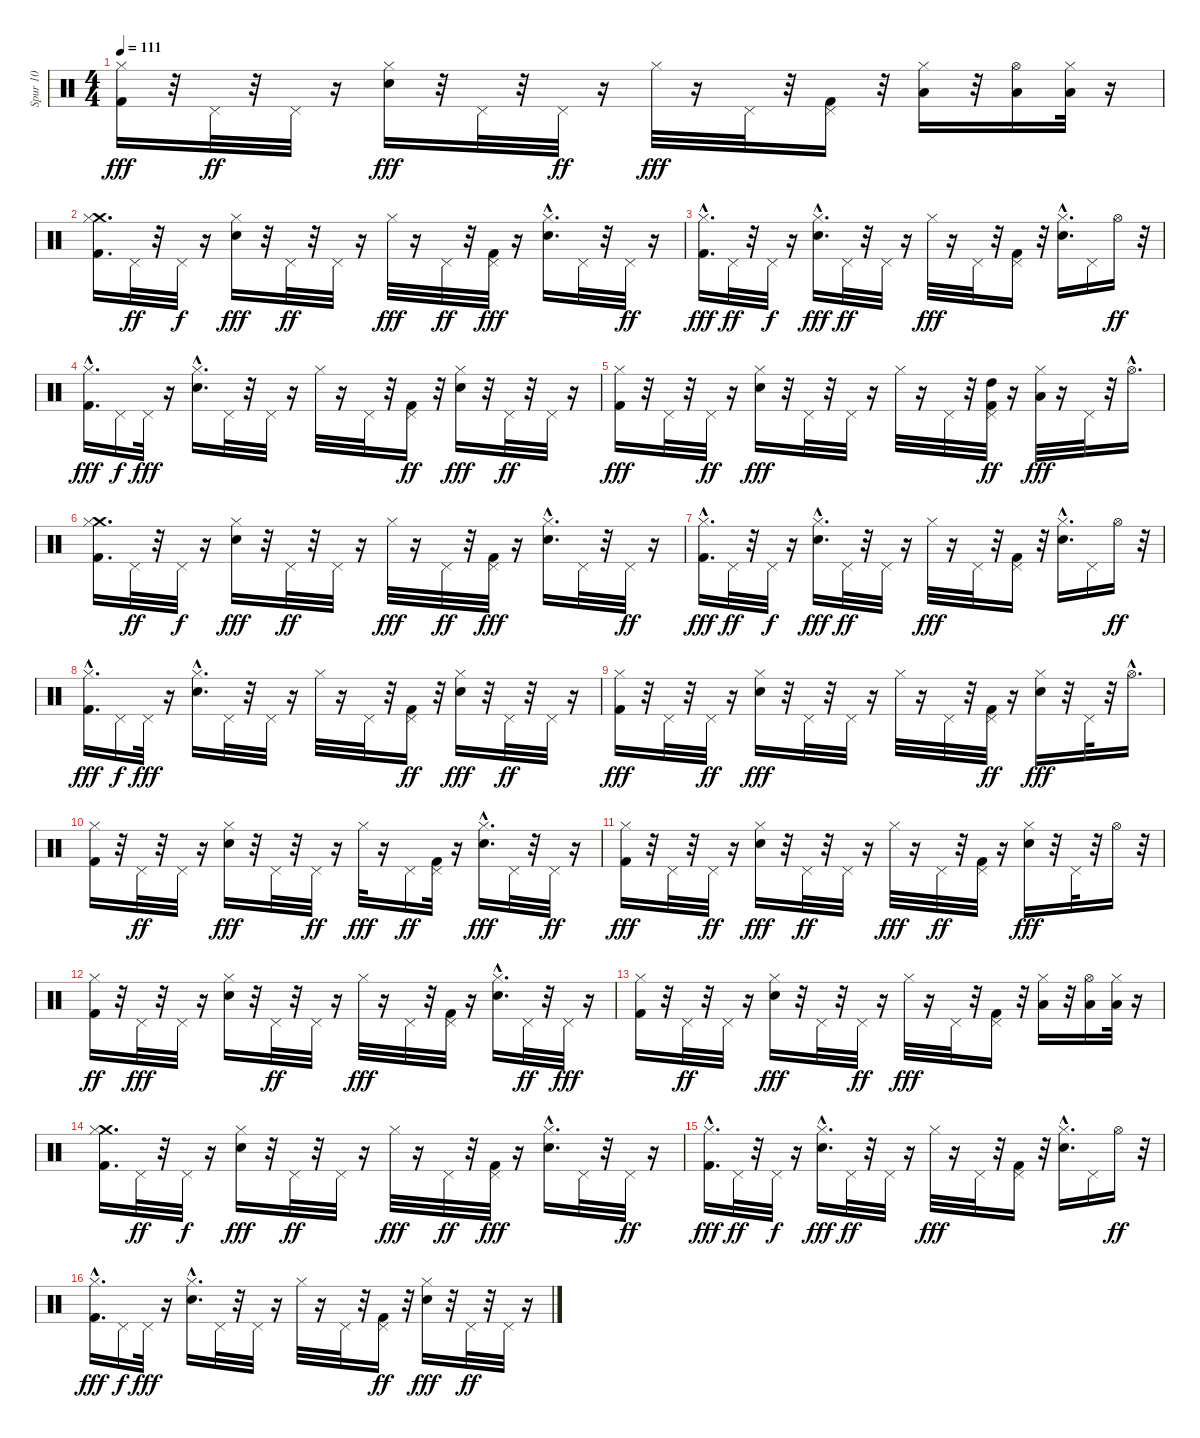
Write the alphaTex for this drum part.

\track ("Spur 10" "Spur 10") {instrument percussion}
\staff {score}
\articulation defaults
\ts (4 4)
\tempo 111
\clef neutral
\ks c
("Kick (hit) 2" "Hi-Hat (closed)").16{dy fff} r.32 "Pedal Hi-Hat (hit)".32{dy ff} r.32 "Pedal Hi-Hat (hit)".32 r.16 ("Snare (hit) 2" "Hi-Hat (closed)").16{dy fff} r.32 "Pedal Hi-Hat (hit)".32 r.32 "Pedal Hi-Hat (hit)".32{dy ff} r.16 "Hi-Hat (closed)".32{dy fff} r.16 "Pedal Hi-Hat (hit)".32 r.32 ("Kick (hit) 2" "Pedal Hi-Hat (hit)").16 r.32 ("Low Tom (hit)" "Hi-Hat (closed)").16 r.32 ("Low Tom (hit)" "Hi-Hat (open)").16 ("Low Floor Tom (hit)" "Hi-Hat (closed)").32 r.16 |
("Kick (hit) 2" "Crash medium (hit)" "Hi-Hat (closed)").16{d} "Pedal Hi-Hat (hit)".32{dy ff} r.32 "Pedal Hi-Hat (hit)".32{dy f} r.16 ("Snare (hit) 2" "Hi-Hat (closed)").16{dy fff} r.32 "Pedal Hi-Hat (hit)".32{dy ff} r.32 "Pedal Hi-Hat (hit)".32 r.16 "Hi-Hat (closed)".32{dy fff} r.16 "Pedal Hi-Hat (hit)".32{dy ff} r.32 ("Kick (hit) 2" "Pedal Hi-Hat (hit)").32{dy fff} r.16 ("Snare (hit) 2"{hac} "Hi-Hat (closed)").16{d} "Pedal Hi-Hat (hit)".32 r.32 "Pedal Hi-Hat (hit)".32{dy ff} r.16 |
("Kick (hit) 2"{hac} "Hi-Hat (closed)").16{d dy fff} "Pedal Hi-Hat (hit)".32{dy ff} r.32 "Pedal Hi-Hat (hit)".32{dy f} r.16 ("Snare (hit) 2"{hac} "Hi-Hat (closed)").16{d dy fff} "Pedal Hi-Hat (hit)".32{dy ff} r.32 "Pedal Hi-Hat (hit)".32 r.16 "Hi-Hat (closed)".32{dy fff} r.16 "Pedal Hi-Hat (hit)".32 r.32 ("Kick (hit) 2" "Pedal Hi-Hat (hit)").16 r.32 ("Snare (hit) 2"{hac} "Hi-Hat (closed)").16{d} "Pedal Hi-Hat (hit)".16 "Hi-Hat (open)".16{dy ff} r.32 |
("Kick (hit) 2"{hac} "Hi-Hat (closed)").16{d dy fff} "Pedal Hi-Hat (hit)".16{dy f} "Pedal Hi-Hat (hit)".32{dy fff} r.16 ("Snare (hit) 2"{hac} "Hi-Hat (closed)").16{d} "Pedal Hi-Hat (hit)".32 r.32 "Pedal Hi-Hat (hit)".32 r.16 "Hi-Hat (closed)".32 r.16 "Pedal Hi-Hat (hit)".32 r.32 ("Kick (hit) 2" "Pedal Hi-Hat (hit)").16{dy ff} r.32 ("Snare (hit) 2" "Hi-Hat (closed)").16{dy fff} r.32 "Pedal Hi-Hat (hit)".32{dy ff} r.32 "Pedal Hi-Hat (hit)".32 r.16 |
("Kick (hit) 2" "Hi-Hat (closed)").16{dy fff} r.32 "Pedal Hi-Hat (hit)".32 r.32 "Pedal Hi-Hat (hit)".32{dy ff} r.16 ("Snare (hit) 2" "Hi-Hat (closed)").16{dy fff} r.32 "Pedal Hi-Hat (hit)".32 r.32 "Pedal Hi-Hat (hit)".32 r.16 "Hi-Hat (closed)".32 r.16 "Pedal Hi-Hat (hit)".32 r.32 ("Kick (hit) 2" "Pedal Hi-Hat (hit)" "High Tom (hit)").32{dy ff} r.16 ("Low Tom (hit)" "Hi-Hat (closed)").32{dy fff} r.16 "Pedal Hi-Hat (hit)".32 r.32 "Hi-Hat (open)"{hac}.16{d} |
("Kick (hit) 2" "Crash medium (hit)" "Hi-Hat (closed)").16{d} "Pedal Hi-Hat (hit)".32{dy ff} r.32 "Pedal Hi-Hat (hit)".32{dy f} r.16 ("Snare (hit) 2" "Hi-Hat (closed)").16{dy fff} r.32 "Pedal Hi-Hat (hit)".32{dy ff} r.32 "Pedal Hi-Hat (hit)".32 r.16 "Hi-Hat (closed)".32{dy fff} r.16 "Pedal Hi-Hat (hit)".32{dy ff} r.32 ("Kick (hit) 2" "Pedal Hi-Hat (hit)").32{dy fff} r.16 ("Snare (hit) 2"{hac} "Hi-Hat (closed)").16{d} "Pedal Hi-Hat (hit)".32 r.32 "Pedal Hi-Hat (hit)".32{dy ff} r.16 |
("Kick (hit) 2"{hac} "Hi-Hat (closed)").16{d dy fff} "Pedal Hi-Hat (hit)".32{dy ff} r.32 "Pedal Hi-Hat (hit)".32{dy f} r.16 ("Snare (hit) 2"{hac} "Hi-Hat (closed)").16{d dy fff} "Pedal Hi-Hat (hit)".32{dy ff} r.32 "Pedal Hi-Hat (hit)".32 r.16 "Hi-Hat (closed)".32{dy fff} r.16 "Pedal Hi-Hat (hit)".32 r.32 ("Kick (hit) 2" "Pedal Hi-Hat (hit)").16 r.32 ("Snare (hit) 2"{hac} "Hi-Hat (closed)").16{d} "Pedal Hi-Hat (hit)".16 "Hi-Hat (open)".16{dy ff} r.32 |
("Kick (hit) 2"{hac} "Hi-Hat (closed)").16{d dy fff} "Pedal Hi-Hat (hit)".16{dy f} "Pedal Hi-Hat (hit)".32{dy fff} r.16 ("Snare (hit) 2"{hac} "Hi-Hat (closed)").16{d} "Pedal Hi-Hat (hit)".32 r.32 "Pedal Hi-Hat (hit)".32 r.16 "Hi-Hat (closed)".32 r.16 "Pedal Hi-Hat (hit)".32 r.32 ("Kick (hit) 2" "Pedal Hi-Hat (hit)").16{dy ff} r.32 ("Snare (hit) 2" "Hi-Hat (closed)").16{dy fff} r.32 "Pedal Hi-Hat (hit)".32{dy ff} r.32 "Pedal Hi-Hat (hit)".32 r.16 |
("Kick (hit) 2" "Hi-Hat (closed)").16{dy fff} r.32 "Pedal Hi-Hat (hit)".32 r.32 "Pedal Hi-Hat (hit)".32{dy ff} r.16 ("Snare (hit) 2" "Hi-Hat (closed)").16{dy fff} r.32 "Pedal Hi-Hat (hit)".32 r.32 "Pedal Hi-Hat (hit)".32 r.16 "Hi-Hat (closed)".32 r.16 "Pedal Hi-Hat (hit)".32 r.32 ("Kick (hit) 2" "Pedal Hi-Hat (hit)").32{dy ff} r.16 ("Snare (hit) 2" "Hi-Hat (closed)").16{dy fff} r.32 "Pedal Hi-Hat (hit)".32 r.32 "Hi-Hat (open)"{hac}.16{d} |
("Kick (hit) 2" "Hi-Hat (closed)").16 r.32 "Pedal Hi-Hat (hit)".32{dy ff} r.32 "Pedal Hi-Hat (hit)".32 r.16 ("Snare (hit) 2" "Hi-Hat (closed)").16{dy fff} r.32 "Pedal Hi-Hat (hit)".32 r.32 "Pedal Hi-Hat (hit)".32{dy ff} r.16 "Hi-Hat (closed)".32{dy fff} r.16 "Pedal Hi-Hat (hit)".16{dy ff} ("Kick (hit) 2" "Pedal Hi-Hat (hit)").32 r.16 ("Snare (hit) 2"{hac} "Hi-Hat (closed)").16{d dy fff} "Pedal Hi-Hat (hit)".32 r.32 "Pedal Hi-Hat (hit)".32{dy ff} r.16 |
("Kick (hit) 2" "Hi-Hat (closed)").16{dy fff} r.32 "Pedal Hi-Hat (hit)".32 r.32 "Pedal Hi-Hat (hit)".32{dy ff} r.16 ("Snare (hit) 2" "Hi-Hat (closed)").16{dy fff} r.32 "Pedal Hi-Hat (hit)".32{dy ff} r.32 "Pedal Hi-Hat (hit)".32 r.16 "Hi-Hat (closed)".32{dy fff} r.16 "Pedal Hi-Hat (hit)".32{dy ff} r.32 ("Kick (hit) 2" "Pedal Hi-Hat (hit)").32 r.16 ("Snare (hit) 2" "Hi-Hat (closed)").16{dy fff} r.32 "Pedal Hi-Hat (hit)".32 r.32 "Hi-Hat (open)".16 r.32 |
("Kick (hit) 2" "Hi-Hat (closed)").16{dy ff} r.32 "Pedal Hi-Hat (hit)".32{dy fff} r.32 "Pedal Hi-Hat (hit)".32 r.16 ("Snare (hit) 2" "Hi-Hat (closed)").16 r.32 "Pedal Hi-Hat (hit)".32{dy ff} r.32 "Pedal Hi-Hat (hit)".32 r.16 "Hi-Hat (closed)".32{dy fff} r.16 "Pedal Hi-Hat (hit)".32 r.32 ("Kick (hit) 2" "Pedal Hi-Hat (hit)").32 r.16 ("Snare (hit) 2"{hac} "Hi-Hat (closed)").16{d} "Pedal Hi-Hat (hit)".32{dy ff} r.32 "Pedal Hi-Hat (hit)".32{dy fff} r.16 |
("Kick (hit) 2" "Hi-Hat (closed)").16 r.32 "Pedal Hi-Hat (hit)".32{dy ff} r.32 "Pedal Hi-Hat (hit)".32 r.16 ("Snare (hit) 2" "Hi-Hat (closed)").16{dy fff} r.32 "Pedal Hi-Hat (hit)".32 r.32 "Pedal Hi-Hat (hit)".32{dy ff} r.16 "Hi-Hat (closed)".32{dy fff} r.16 "Pedal Hi-Hat (hit)".32 r.32 ("Kick (hit) 2" "Pedal Hi-Hat (hit)").16 r.32 ("Low Tom (hit)" "Hi-Hat (closed)").16 r.32 ("Low Tom (hit)" "Hi-Hat (open)").16 ("Low Floor Tom (hit)" "Hi-Hat (closed)").32 r.16 |
("Kick (hit) 2" "Crash medium (hit)" "Hi-Hat (closed)").16{d} "Pedal Hi-Hat (hit)".32{dy ff} r.32 "Pedal Hi-Hat (hit)".32{dy f} r.16 ("Snare (hit) 2" "Hi-Hat (closed)").16{dy fff} r.32 "Pedal Hi-Hat (hit)".32{dy ff} r.32 "Pedal Hi-Hat (hit)".32 r.16 "Hi-Hat (closed)".32{dy fff} r.16 "Pedal Hi-Hat (hit)".32{dy ff} r.32 ("Kick (hit) 2" "Pedal Hi-Hat (hit)").32{dy fff} r.16 ("Snare (hit) 2"{hac} "Hi-Hat (closed)").16{d} "Pedal Hi-Hat (hit)".32 r.32 "Pedal Hi-Hat (hit)".32{dy ff} r.16 |
("Kick (hit) 2"{hac} "Hi-Hat (closed)").16{d dy fff} "Pedal Hi-Hat (hit)".32{dy ff} r.32 "Pedal Hi-Hat (hit)".32{dy f} r.16 ("Snare (hit) 2"{hac} "Hi-Hat (closed)").16{d dy fff} "Pedal Hi-Hat (hit)".32{dy ff} r.32 "Pedal Hi-Hat (hit)".32 r.16 "Hi-Hat (closed)".32{dy fff} r.16 "Pedal Hi-Hat (hit)".32 r.32 ("Kick (hit) 2" "Pedal Hi-Hat (hit)").16 r.32 ("Snare (hit) 2"{hac} "Hi-Hat (closed)").16{d} "Pedal Hi-Hat (hit)".16 "Hi-Hat (open)".16{dy ff} r.32 |
("Kick (hit) 2"{hac} "Hi-Hat (closed)").16{d dy fff} "Pedal Hi-Hat (hit)".16{dy f} "Pedal Hi-Hat (hit)".32{dy fff} r.16 ("Snare (hit) 2"{hac} "Hi-Hat (closed)").16{d} "Pedal Hi-Hat (hit)".32 r.32 "Pedal Hi-Hat (hit)".32 r.16 "Hi-Hat (closed)".32 r.16 "Pedal Hi-Hat (hit)".32 r.32 ("Kick (hit) 2" "Pedal Hi-Hat (hit)").16{dy ff} r.32 ("Snare (hit) 2" "Hi-Hat (closed)").16{dy fff} r.32 "Pedal Hi-Hat (hit)".32{dy ff} r.32 "Pedal Hi-Hat (hit)".32 r.16
